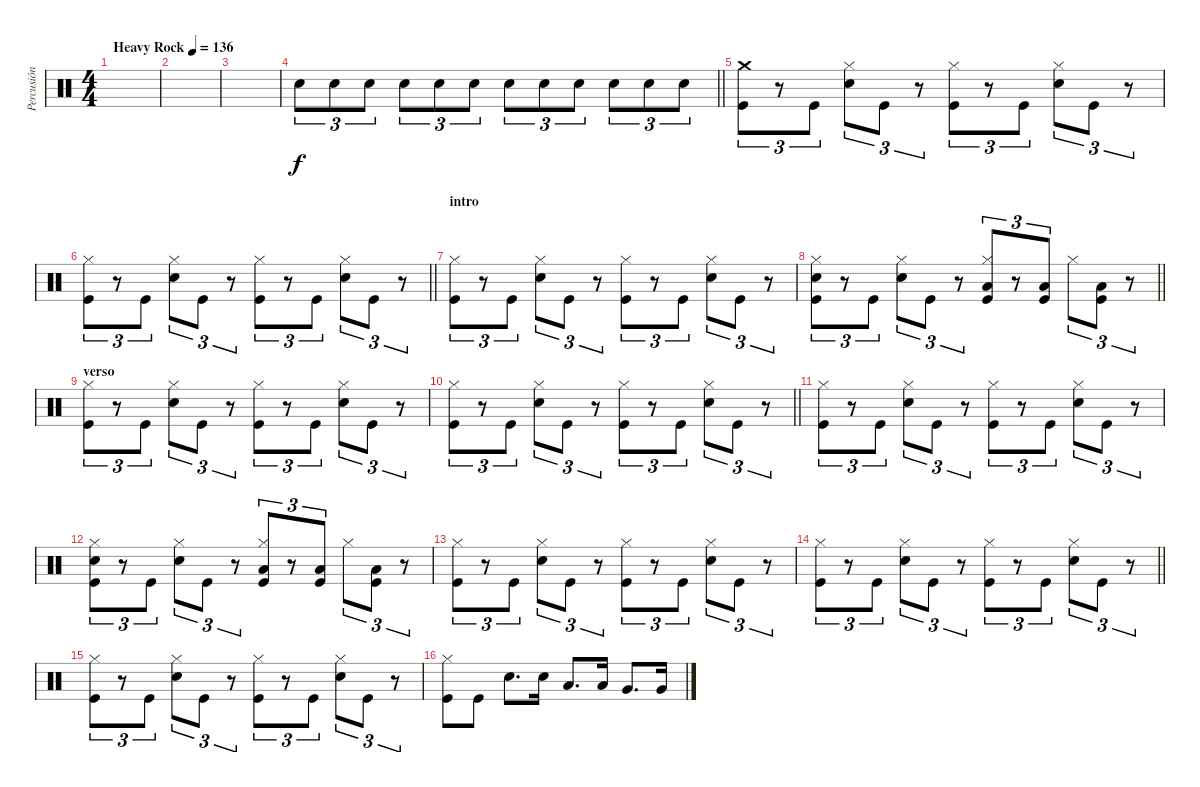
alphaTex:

\track ("Percusión" "Percusión") {instrument percussion}
\staff {score}
\articulation defaults
\ts (4 4)
\tempo (136 "Heavy Rock")
\clef neutral
\ks c
|
|
|
\barLineRight lightlight "Snare (hit) 2".8{tu (3 2)} "Snare (hit) 2".8{tu (3 2)} "Snare (hit) 2".8{tu (3 2)} "Snare (hit) 2".8{tu (3 2)} "Snare (hit) 2".8{tu (3 2)} "Snare (hit) 2".8{tu (3 2)} "Snare (hit) 2".8{tu (3 2)} "Snare (hit) 2".8{tu (3 2)} "Snare (hit) 2".8{tu (3 2)} "Snare (hit) 2".8{tu (3 2)} "Snare (hit) 2".8{tu (3 2)} "Snare (hit) 2".8{tu (3 2)}
|
("Crash medium (hit)" "Kick (hit)").8{tu (3 2)} r.8{tu (3 2)} "Kick (hit)".8{tu (3 2)} ("Hi-Hat (closed)" "Snare (hit) 2").8{tu (3 2)} "Kick (hit)".8{tu (3 2)} r.8{tu (3 2)} ("Hi-Hat (closed)" "Kick (hit)").8{tu (3 2)} r.8{tu (3 2)} "Kick (hit)".8{tu (3 2)} ("Hi-Hat (closed)" "Snare (hit) 2").8{tu (3 2)} "Kick (hit)".8{tu (3 2)} r.8{tu (3 2)} |
\barLineRight lightlight
("Hi-Hat (closed)" "Kick (hit)").8{tu (3 2)} r.8{tu (3 2)} "Kick (hit)".8{tu (3 2)} ("Hi-Hat (closed)" "Snare (hit) 2").8{tu (3 2)} "Kick (hit)".8{tu (3 2)} r.8{tu (3 2)} ("Hi-Hat (closed)" "Kick (hit)").8{tu (3 2)} r.8{tu (3 2)} "Kick (hit)".8{tu (3 2)} ("Hi-Hat (closed)" "Snare (hit) 2").8{tu (3 2)} "Kick (hit)".8{tu (3 2)} r.8{tu (3 2)} |
\section ("" "intro")
("Hi-Hat (closed)" "Kick (hit)").8{tu (3 2)} r.8{tu (3 2)} "Kick (hit)".8{tu (3 2)} ("Hi-Hat (closed)" "Snare (hit) 2").8{tu (3 2)} "Kick (hit)".8{tu (3 2)} r.8{tu (3 2)} ("Hi-Hat (closed)" "Kick (hit)").8{tu (3 2)} r.8{tu (3 2)} "Kick (hit)".8{tu (3 2)} ("Hi-Hat (closed)" "Snare (hit) 2").8{tu (3 2)} "Kick (hit)".8{tu (3 2)} r.8{tu (3 2)} |
\barLineRight lightlight
("Hi-Hat (closed)" "Snare (hit) 2" "Kick (hit)").8{tu (3 2)} r.8{tu (3 2)} "Kick (hit)".8{tu (3 2)} ("Hi-Hat (closed)" "Snare (hit) 2").8{tu (3 2)} "Kick (hit)".8{tu (3 2)} r.8{tu (3 2)} ("Hi-Hat (closed)" "Low Tom (hit)" "Kick (hit)").8{tu (3 2)} r.8{tu (3 2)} ("Low Tom (hit)" "Kick (hit)").8{tu (3 2)} "Hi-Hat (closed)".8{tu (3 2)} ("Low Tom (hit)" "Kick (hit)").8{tu (3 2)} r.8{tu (3 2)} |
\section ("" "verso")
("Hi-Hat (closed)" "Kick (hit)").8{tu (3 2)} r.8{tu (3 2)} "Kick (hit)".8{tu (3 2)} ("Hi-Hat (closed)" "Snare (hit) 2").8{tu (3 2)} "Kick (hit)".8{tu (3 2)} r.8{tu (3 2)} ("Hi-Hat (closed)" "Kick (hit)").8{tu (3 2)} r.8{tu (3 2)} "Kick (hit)".8{tu (3 2)} ("Hi-Hat (closed)" "Snare (hit) 2").8{tu (3 2)} "Kick (hit)".8{tu (3 2)} r.8{tu (3 2)} |
\barLineRight lightlight
("Hi-Hat (closed)" "Kick (hit)").8{tu (3 2)} r.8{tu (3 2)} "Kick (hit)".8{tu (3 2)} ("Hi-Hat (closed)" "Snare (hit) 2").8{tu (3 2)} "Kick (hit)".8{tu (3 2)} r.8{tu (3 2)} ("Hi-Hat (closed)" "Kick (hit)").8{tu (3 2)} r.8{tu (3 2)} "Kick (hit)".8{tu (3 2)} ("Hi-Hat (closed)" "Snare (hit) 2").8{tu (3 2)} "Kick (hit)".8{tu (3 2)} r.8{tu (3 2)} |
("Hi-Hat (closed)" "Kick (hit)").8{tu (3 2)} r.8{tu (3 2)} "Kick (hit)".8{tu (3 2)} ("Hi-Hat (closed)" "Snare (hit) 2").8{tu (3 2)} "Kick (hit)".8{tu (3 2)} r.8{tu (3 2)} ("Hi-Hat (closed)" "Kick (hit)").8{tu (3 2)} r.8{tu (3 2)} "Kick (hit)".8{tu (3 2)} ("Hi-Hat (closed)" "Snare (hit) 2").8{tu (3 2)} "Kick (hit)".8{tu (3 2)} r.8{tu (3 2)} |
("Hi-Hat (closed)" "Snare (hit) 2" "Kick (hit)").8{tu (3 2)} r.8{tu (3 2)} "Kick (hit)".8{tu (3 2)} ("Hi-Hat (closed)" "Snare (hit) 2").8{tu (3 2)} "Kick (hit)".8{tu (3 2)} r.8{tu (3 2)} ("Hi-Hat (closed)" "Low Tom (hit)" "Kick (hit)").8{tu (3 2)} r.8{tu (3 2)} ("Low Tom (hit)" "Kick (hit)").8{tu (3 2)} "Hi-Hat (closed)".8{tu (3 2)} ("Low Tom (hit)" "Kick (hit)").8{tu (3 2)} r.8{tu (3 2)} |
("Hi-Hat (closed)" "Kick (hit)").8{tu (3 2)} r.8{tu (3 2)} "Kick (hit)".8{tu (3 2)} ("Hi-Hat (closed)" "Snare (hit) 2").8{tu (3 2)} "Kick (hit)".8{tu (3 2)} r.8{tu (3 2)} ("Hi-Hat (closed)" "Kick (hit)").8{tu (3 2)} r.8{tu (3 2)} "Kick (hit)".8{tu (3 2)} ("Hi-Hat (closed)" "Snare (hit) 2").8{tu (3 2)} "Kick (hit)".8{tu (3 2)} r.8{tu (3 2)} |
\barLineRight lightlight
("Hi-Hat (closed)" "Kick (hit)").8{tu (3 2)} r.8{tu (3 2)} "Kick (hit)".8{tu (3 2)} ("Hi-Hat (closed)" "Snare (hit) 2").8{tu (3 2)} "Kick (hit)".8{tu (3 2)} r.8{tu (3 2)} ("Hi-Hat (closed)" "Kick (hit)").8{tu (3 2)} r.8{tu (3 2)} "Kick (hit)".8{tu (3 2)} ("Hi-Hat (closed)" "Snare (hit) 2").8{tu (3 2)} "Kick (hit)".8{tu (3 2)} r.8{tu (3 2)} |
("Hi-Hat (closed)" "Kick (hit)").8{tu (3 2)} r.8{tu (3 2)} "Kick (hit)".8{tu (3 2)} ("Hi-Hat (closed)" "Snare (hit) 2").8{tu (3 2)} "Kick (hit)".8{tu (3 2)} r.8{tu (3 2)} ("Hi-Hat (closed)" "Kick (hit)").8{tu (3 2)} r.8{tu (3 2)} "Kick (hit)".8{tu (3 2)} ("Hi-Hat (closed)" "Snare (hit) 2").8{tu (3 2)} "Kick (hit)".8{tu (3 2)} r.8{tu (3 2)} |
("Hi-Hat (closed)" "Kick (hit)").8 "Kick (hit)".8 "Snare (hit) 2".8{d} "Snare (hit) 2".16 "Low Tom (hit)".8{d} "Low Tom (hit)".16 "Very Low Tom (hit)".8{d} "Very Low Tom (hit)".16
